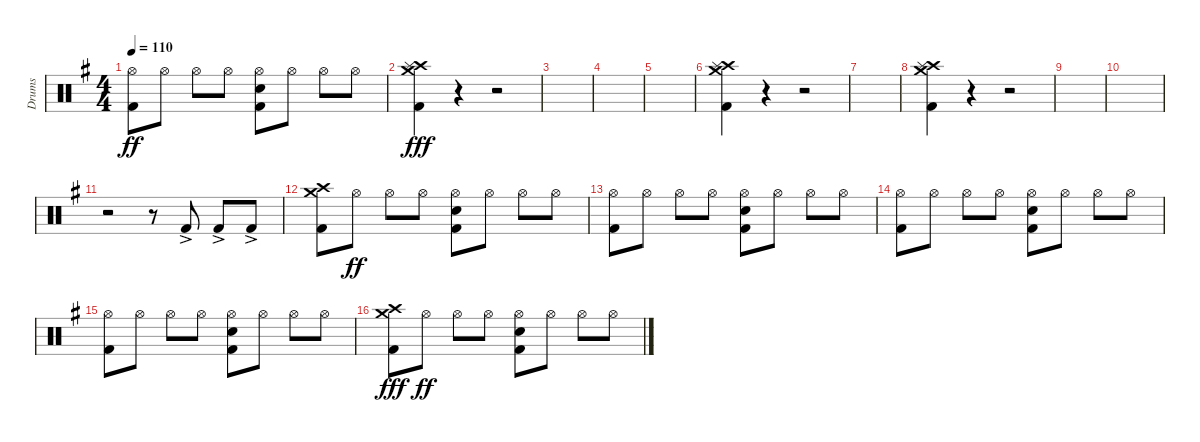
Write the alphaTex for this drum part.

\track ("Drums" "Drums") {instrument percussion}
\staff {score}
\articulation defaults
\ts (4 4)
\tempo 110
\clef neutral
\ks eminor
("Kick (hit) 2" "Hi-Hat (open)").8{dy ff} "Hi-Hat (open)".8 "Hi-Hat (open)".8 "Hi-Hat (open)".8 ("Kick (hit) 2" "Electric Snare (hit)" "Hi-Hat (open)").8 "Hi-Hat (open)".8 "Hi-Hat (open)".8 "Hi-Hat (open)".8 |
("Crash high (hit)" "Splash (hit)" "Kick (hit) 2" "Crash medium (hit)").4{dy fff} r.4 r.2 |
|
|
|
("Crash high (hit)" "Splash (hit)" "Kick (hit) 2" "Crash medium (hit)").4 r.4 r.2 |
|
("Crash high (hit)" "Splash (hit)" "Kick (hit) 2" "Crash medium (hit)").4 r.4 r.2 |
|
|
r.2 r.8 "Kick (hit) 2"{ac}.8 "Kick (hit) 2"{ac}.8 "Kick (hit) 2"{ac}.8 |
("Kick (hit) 2" "Crash high (hit)" "Crash medium (hit)").8 "Hi-Hat (open)".8{dy ff} "Hi-Hat (open)".8 "Hi-Hat (open)".8 ("Kick (hit) 2" "Electric Snare (hit)" "Hi-Hat (open)").8 "Hi-Hat (open)".8 "Hi-Hat (open)".8 "Hi-Hat (open)".8 |
("Kick (hit) 2" "Hi-Hat (open)").8 "Hi-Hat (open)".8 "Hi-Hat (open)".8 "Hi-Hat (open)".8 ("Kick (hit) 2" "Electric Snare (hit)" "Hi-Hat (open)").8 "Hi-Hat (open)".8 "Hi-Hat (open)".8 "Hi-Hat (open)".8 |
("Kick (hit) 2" "Hi-Hat (open)").8 "Hi-Hat (open)".8 "Hi-Hat (open)".8 "Hi-Hat (open)".8 ("Kick (hit) 2" "Electric Snare (hit)" "Hi-Hat (open)").8 "Hi-Hat (open)".8 "Hi-Hat (open)".8 "Hi-Hat (open)".8 |
("Kick (hit) 2" "Hi-Hat (open)").8 "Hi-Hat (open)".8 "Hi-Hat (open)".8 "Hi-Hat (open)".8 ("Kick (hit) 2" "Electric Snare (hit)" "Hi-Hat (open)").8 "Hi-Hat (open)".8 "Hi-Hat (open)".8 "Hi-Hat (open)".8 |
("Kick (hit) 2" "Crash high (hit)" "Crash medium (hit)").8{dy fff} "Hi-Hat (open)".8{dy ff} "Hi-Hat (open)".8 "Hi-Hat (open)".8 ("Kick (hit) 2" "Electric Snare (hit)" "Hi-Hat (open)").8 "Hi-Hat (open)".8 "Hi-Hat (open)".8 "Hi-Hat (open)".8
